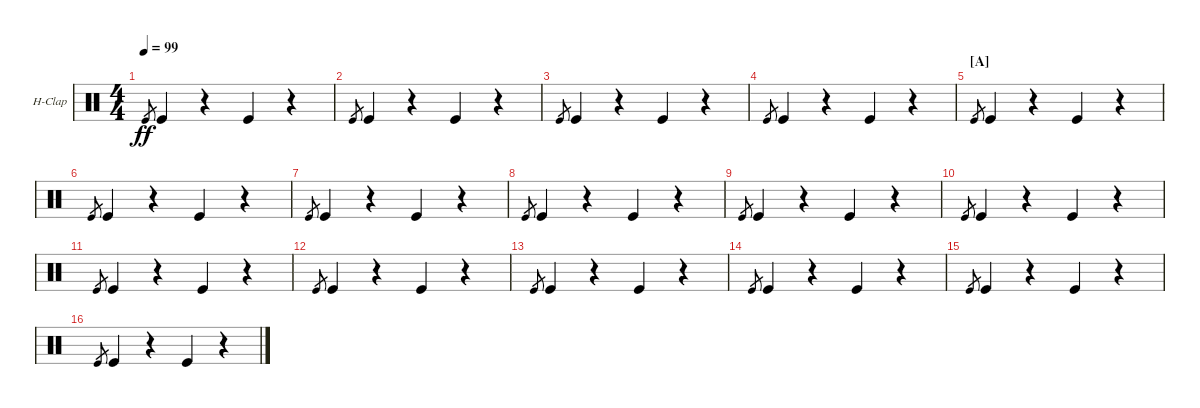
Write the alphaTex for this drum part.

\bracketExtendMode groupsimilarinstruments
\firstSystemTrackNameOrientation horizontal
\otherSystemsTrackNameOrientation horizontal
\track ("Hand Clap" "H-Clap") {instrument percussion}
\staff {score}
\articulation defaults
\ts (4 4)
\tempo 99
\clef neutral
\ks c "Kick (hit)".8{gr dy ff} "Kick (hit)".4
r.4 "Kick (hit)".4 r.4 |
"Kick (hit)".8{gr} "Kick (hit)".4 r.4 "Kick (hit)".4 r.4 |
"Kick (hit)".8{gr} "Kick (hit)".4 r.4 "Kick (hit)".4 r.4 |
"Kick (hit)".8{gr} "Kick (hit)".4 r.4 "Kick (hit)".4 r.4 |
\section ("A" "")
"Kick (hit)".8{gr} "Kick (hit)".4 r.4 "Kick (hit)".4 r.4 |
"Kick (hit)".8{gr} "Kick (hit)".4 r.4 "Kick (hit)".4 r.4 |
"Kick (hit)".8{gr} "Kick (hit)".4 r.4 "Kick (hit)".4 r.4 |
"Kick (hit)".8{gr} "Kick (hit)".4 r.4 "Kick (hit)".4 r.4 |
"Kick (hit)".8{gr} "Kick (hit)".4 r.4 "Kick (hit)".4 r.4 |
"Kick (hit)".8{gr} "Kick (hit)".4 r.4 "Kick (hit)".4 r.4 |
"Kick (hit)".8{gr} "Kick (hit)".4 r.4 "Kick (hit)".4 r.4 |
"Kick (hit)".8{gr} "Kick (hit)".4 r.4 "Kick (hit)".4 r.4 |
"Kick (hit)".8{gr} "Kick (hit)".4 r.4 "Kick (hit)".4 r.4 |
"Kick (hit)".8{gr} "Kick (hit)".4 r.4 "Kick (hit)".4 r.4 |
"Kick (hit)".8{gr} "Kick (hit)".4 r.4 "Kick (hit)".4 r.4 |
"Kick (hit)".8{gr} "Kick (hit)".4 r.4 "Kick (hit)".4 r.4
